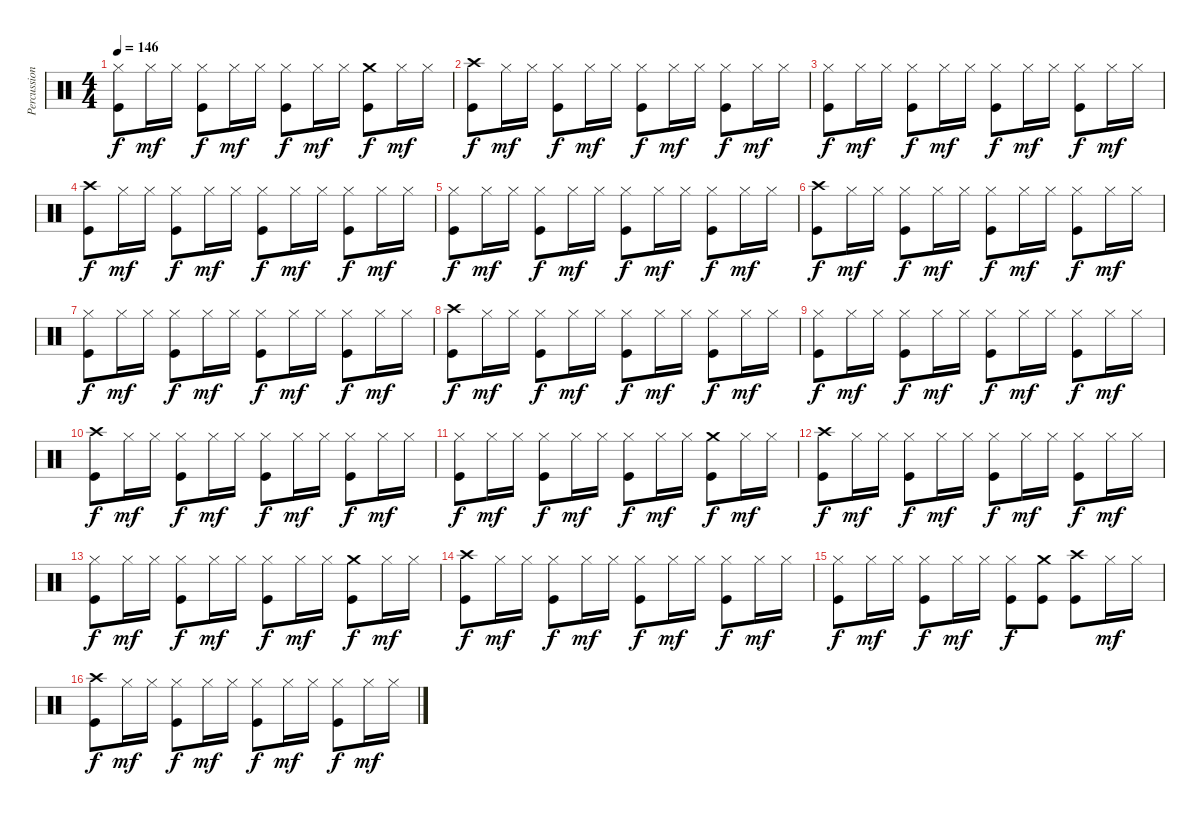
\track ("Percussion" "Percussion") {instrument percussion}
\staff {score}
\articulation defaults
\ts (4 4)
\tempo 146
\clef neutral
\ks c
("Hi-Hat (closed)" "Kick (hit)").8{dy f} "Hi-Hat (closed)".16{dy mf} "Hi-Hat (closed)".16 ("Hi-Hat (closed)" "Kick (hit)").8{dy f} "Hi-Hat (closed)".16{dy mf} "Hi-Hat (closed)".16 ("Hi-Hat (closed)" "Kick (hit)").8{dy f} "Hi-Hat (closed)".16{dy mf} "Hi-Hat (closed)".16 ("Crash medium (hit)" "Kick (hit)").8{dy f} "Hi-Hat (closed)".16{dy mf} "Hi-Hat (closed)".16 |
("Crash high (hit)" "Kick (hit)").8{dy f} "Hi-Hat (closed)".16{dy mf} "Hi-Hat (closed)".16 ("Hi-Hat (closed)" "Kick (hit)").8{dy f} "Hi-Hat (closed)".16{dy mf} "Hi-Hat (closed)".16 ("Hi-Hat (closed)" "Kick (hit)").8{dy f} "Hi-Hat (closed)".16{dy mf} "Hi-Hat (closed)".16 ("Hi-Hat (closed)" "Kick (hit)").8{dy f} "Hi-Hat (closed)".16{dy mf} "Hi-Hat (closed)".16 |
("Hi-Hat (closed)" "Kick (hit)").8{dy f} "Hi-Hat (closed)".16{dy mf} "Hi-Hat (closed)".16 ("Hi-Hat (closed)" "Kick (hit)").8{dy f} "Hi-Hat (closed)".16{dy mf} "Hi-Hat (closed)".16 ("Hi-Hat (closed)" "Kick (hit)").8{dy f} "Hi-Hat (closed)".16{dy mf} "Hi-Hat (closed)".16 ("Hi-Hat (closed)" "Kick (hit)").8{dy f} "Hi-Hat (closed)".16{dy mf} "Hi-Hat (closed)".16 |
("Crash high (hit)" "Kick (hit)").8{dy f} "Hi-Hat (closed)".16{dy mf} "Hi-Hat (closed)".16 ("Hi-Hat (closed)" "Kick (hit)").8{dy f} "Hi-Hat (closed)".16{dy mf} "Hi-Hat (closed)".16 ("Hi-Hat (closed)" "Kick (hit)").8{dy f} "Hi-Hat (closed)".16{dy mf} "Hi-Hat (closed)".16 ("Hi-Hat (closed)" "Kick (hit)").8{dy f} "Hi-Hat (closed)".16{dy mf} "Hi-Hat (closed)".16 |
("Hi-Hat (closed)" "Kick (hit)").8{dy f} "Hi-Hat (closed)".16{dy mf} "Hi-Hat (closed)".16 ("Hi-Hat (closed)" "Kick (hit)").8{dy f} "Hi-Hat (closed)".16{dy mf} "Hi-Hat (closed)".16 ("Hi-Hat (closed)" "Kick (hit)").8{dy f} "Hi-Hat (closed)".16{dy mf} "Hi-Hat (closed)".16 ("Hi-Hat (closed)" "Kick (hit)").8{dy f} "Hi-Hat (closed)".16{dy mf} "Hi-Hat (closed)".16 |
("Crash high (hit)" "Kick (hit)").8{dy f} "Hi-Hat (closed)".16{dy mf} "Hi-Hat (closed)".16 ("Hi-Hat (closed)" "Kick (hit)").8{dy f} "Hi-Hat (closed)".16{dy mf} "Hi-Hat (closed)".16 ("Hi-Hat (closed)" "Kick (hit)").8{dy f} "Hi-Hat (closed)".16{dy mf} "Hi-Hat (closed)".16 ("Hi-Hat (closed)" "Kick (hit)").8{dy f} "Hi-Hat (closed)".16{dy mf} "Hi-Hat (closed)".16 |
("Hi-Hat (closed)" "Kick (hit)").8{dy f} "Hi-Hat (closed)".16{dy mf} "Hi-Hat (closed)".16 ("Hi-Hat (closed)" "Kick (hit)").8{dy f} "Hi-Hat (closed)".16{dy mf} "Hi-Hat (closed)".16 ("Hi-Hat (closed)" "Kick (hit)").8{dy f} "Hi-Hat (closed)".16{dy mf} "Hi-Hat (closed)".16 ("Hi-Hat (closed)" "Kick (hit)").8{dy f} "Hi-Hat (closed)".16{dy mf} "Hi-Hat (closed)".16 |
("Crash high (hit)" "Kick (hit)").8{dy f} "Hi-Hat (closed)".16{dy mf} "Hi-Hat (closed)".16 ("Hi-Hat (closed)" "Kick (hit)").8{dy f} "Hi-Hat (closed)".16{dy mf} "Hi-Hat (closed)".16 ("Hi-Hat (closed)" "Kick (hit)").8{dy f} "Hi-Hat (closed)".16{dy mf} "Hi-Hat (closed)".16 ("Hi-Hat (closed)" "Kick (hit)").8{dy f} "Hi-Hat (closed)".16{dy mf} "Hi-Hat (closed)".16 |
("Hi-Hat (closed)" "Kick (hit)").8{dy f} "Hi-Hat (closed)".16{dy mf} "Hi-Hat (closed)".16 ("Hi-Hat (closed)" "Kick (hit)").8{dy f} "Hi-Hat (closed)".16{dy mf} "Hi-Hat (closed)".16 ("Hi-Hat (closed)" "Kick (hit)").8{dy f} "Hi-Hat (closed)".16{dy mf} "Hi-Hat (closed)".16 ("Hi-Hat (closed)" "Kick (hit)").8{dy f} "Hi-Hat (closed)".16{dy mf} "Hi-Hat (closed)".16 |
("Crash high (hit)" "Kick (hit)").8{dy f} "Hi-Hat (closed)".16{dy mf} "Hi-Hat (closed)".16 ("Hi-Hat (closed)" "Kick (hit)").8{dy f} "Hi-Hat (closed)".16{dy mf} "Hi-Hat (closed)".16 ("Hi-Hat (closed)" "Kick (hit)").8{dy f} "Hi-Hat (closed)".16{dy mf} "Hi-Hat (closed)".16 ("Hi-Hat (closed)" "Kick (hit)").8{dy f} "Hi-Hat (closed)".16{dy mf} "Hi-Hat (closed)".16 |
("Hi-Hat (closed)" "Kick (hit)").8{dy f} "Hi-Hat (closed)".16{dy mf} "Hi-Hat (closed)".16 ("Hi-Hat (closed)" "Kick (hit)").8{dy f} "Hi-Hat (closed)".16{dy mf} "Hi-Hat (closed)".16 ("Hi-Hat (closed)" "Kick (hit)").8{dy f} "Hi-Hat (closed)".16{dy mf} "Hi-Hat (closed)".16 ("Crash medium (hit)" "Kick (hit)").8{dy f} "Hi-Hat (closed)".16{dy mf} "Hi-Hat (closed)".16 |
("Crash high (hit)" "Kick (hit)").8{dy f} "Hi-Hat (closed)".16{dy mf} "Hi-Hat (closed)".16 ("Hi-Hat (closed)" "Kick (hit)").8{dy f} "Hi-Hat (closed)".16{dy mf} "Hi-Hat (closed)".16 ("Hi-Hat (closed)" "Kick (hit)").8{dy f} "Hi-Hat (closed)".16{dy mf} "Hi-Hat (closed)".16 ("Hi-Hat (closed)" "Kick (hit)").8{dy f} "Hi-Hat (closed)".16{dy mf} "Hi-Hat (closed)".16 |
("Hi-Hat (closed)" "Kick (hit)").8{dy f} "Hi-Hat (closed)".16{dy mf} "Hi-Hat (closed)".16 ("Hi-Hat (closed)" "Kick (hit)").8{dy f} "Hi-Hat (closed)".16{dy mf} "Hi-Hat (closed)".16 ("Hi-Hat (closed)" "Kick (hit)").8{dy f} "Hi-Hat (closed)".16{dy mf} "Hi-Hat (closed)".16 ("Crash medium (hit)" "Kick (hit)").8{dy f} "Hi-Hat (closed)".16{dy mf} "Hi-Hat (closed)".16 |
("Crash high (hit)" "Kick (hit)").8{dy f} "Hi-Hat (closed)".16{dy mf} "Hi-Hat (closed)".16 ("Hi-Hat (closed)" "Kick (hit)").8{dy f} "Hi-Hat (closed)".16{dy mf} "Hi-Hat (closed)".16 ("Hi-Hat (closed)" "Kick (hit)").8{dy f} "Hi-Hat (closed)".16{dy mf} "Hi-Hat (closed)".16 ("Hi-Hat (closed)" "Kick (hit)").8{dy f} "Hi-Hat (closed)".16{dy mf} "Hi-Hat (closed)".16 |
("Hi-Hat (closed)" "Kick (hit)").8{dy f} "Hi-Hat (closed)".16{dy mf} "Hi-Hat (closed)".16 ("Hi-Hat (closed)" "Kick (hit)").8{dy f} "Hi-Hat (closed)".16{dy mf} "Hi-Hat (closed)".16 ("Hi-Hat (closed)" "Kick (hit)").8{dy f} ("Crash medium (hit)" "Kick (hit)").8 ("Crash high (hit)" "Kick (hit)").8 "Hi-Hat (closed)".16{dy mf} "Hi-Hat (closed)".16 |
("Crash high (hit)" "Kick (hit)").8{dy f} "Hi-Hat (closed)".16{dy mf} "Hi-Hat (closed)".16 ("Hi-Hat (closed)" "Kick (hit)").8{dy f} "Hi-Hat (closed)".16{dy mf} "Hi-Hat (closed)".16 ("Hi-Hat (closed)" "Kick (hit)").8{dy f} "Hi-Hat (closed)".16{dy mf} "Hi-Hat (closed)".16 ("Hi-Hat (closed)" "Kick (hit)").8{dy f} "Hi-Hat (closed)".16{dy mf} "Hi-Hat (closed)".16
